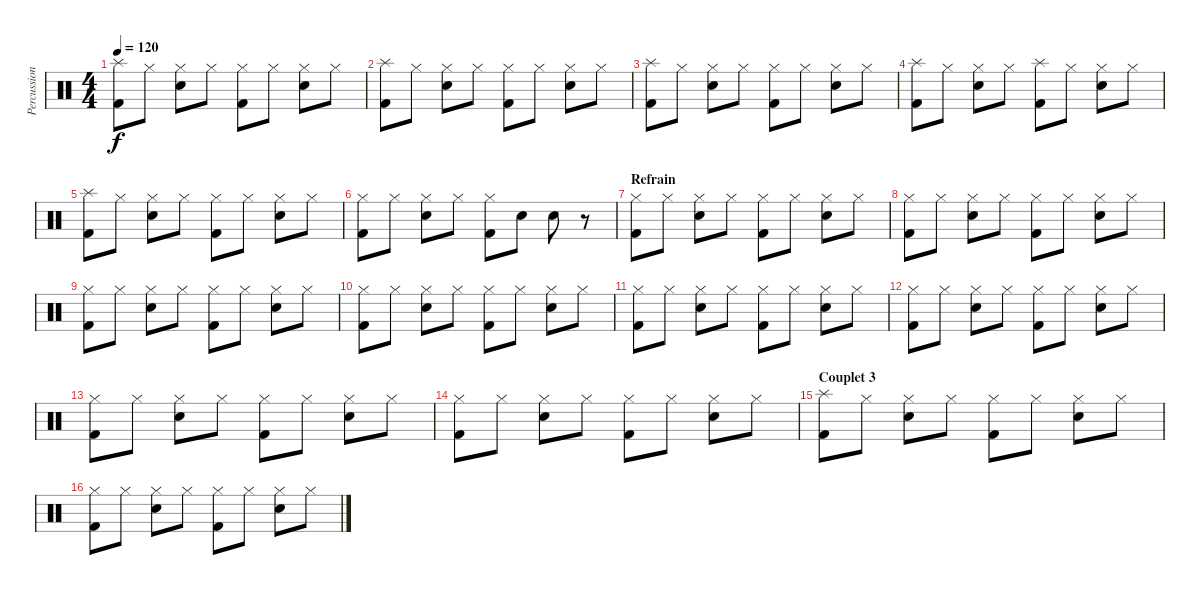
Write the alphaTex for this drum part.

\track ("Percussions" "Percussion") {instrument percussion}
\staff {score}
\articulation defaults
\ts (4 4)
\tempo 120
\clef neutral
\ks c
("Kick (hit) 2" "Splash (hit)").8{dy f} "Hi-Hat (closed)".8 ("Electric Snare (hit)" "Hi-Hat (closed)").8 "Hi-Hat (closed)".8 ("Kick (hit) 2" "Hi-Hat (closed)").8 "Hi-Hat (closed)".8 ("Electric Snare (hit)" "Hi-Hat (closed)").8 "Hi-Hat (closed)".8 |
("Kick (hit) 2" "Splash (hit)").8 "Hi-Hat (closed)".8 ("Electric Snare (hit)" "Hi-Hat (closed)").8 "Hi-Hat (closed)".8 ("Kick (hit) 2" "Hi-Hat (closed)").8 "Hi-Hat (closed)".8 ("Electric Snare (hit)" "Hi-Hat (closed)").8 "Hi-Hat (closed)".8 |
("Kick (hit) 2" "Splash (hit)").8 "Hi-Hat (closed)".8 ("Electric Snare (hit)" "Hi-Hat (closed)").8 "Hi-Hat (closed)".8 ("Kick (hit) 2" "Hi-Hat (closed)").8 "Hi-Hat (closed)".8 ("Electric Snare (hit)" "Hi-Hat (closed)").8 "Hi-Hat (closed)".8 |
("Kick (hit) 2" "Splash (hit)").8 "Hi-Hat (closed)".8 ("Electric Snare (hit)" "Hi-Hat (closed)").8 "Hi-Hat (closed)".8 ("Kick (hit) 2" "Splash (hit)").8 "Hi-Hat (closed)".8 ("Electric Snare (hit)" "Hi-Hat (closed)").8 "Hi-Hat (closed)".8 |
("Kick (hit) 2" "Splash (hit)").8 "Hi-Hat (closed)".8 ("Electric Snare (hit)" "Hi-Hat (closed)").8 "Hi-Hat (closed)".8 ("Kick (hit) 2" "Hi-Hat (closed)").8 "Hi-Hat (closed)".8 ("Electric Snare (hit)" "Hi-Hat (closed)").8 "Hi-Hat (closed)".8 |
("Kick (hit) 2" "Hi-Hat (closed)").8 "Hi-Hat (closed)".8 ("Electric Snare (hit)" "Hi-Hat (closed)").8 "Hi-Hat (closed)".8 ("Kick (hit) 2" "Hi-Hat (closed)").8 "Electric Snare (hit)".8 "Electric Snare (hit)".8 r.8 |
\section ("" "Refrain")
("Kick (hit) 2" "Hi-Hat (closed)").8 "Hi-Hat (closed)".8 ("Electric Snare (hit)" "Hi-Hat (closed)").8 "Hi-Hat (closed)".8 ("Kick (hit) 2" "Hi-Hat (closed)").8 "Hi-Hat (closed)".8 ("Electric Snare (hit)" "Hi-Hat (closed)").8 "Hi-Hat (closed)".8 |
("Kick (hit) 2" "Hi-Hat (closed)").8 "Hi-Hat (closed)".8 ("Electric Snare (hit)" "Hi-Hat (closed)").8 "Hi-Hat (closed)".8 ("Kick (hit) 2" "Hi-Hat (closed)").8 "Hi-Hat (closed)".8 ("Electric Snare (hit)" "Hi-Hat (closed)").8 "Hi-Hat (closed)".8 |
("Kick (hit) 2" "Hi-Hat (closed)").8 "Hi-Hat (closed)".8 ("Electric Snare (hit)" "Hi-Hat (closed)").8 "Hi-Hat (closed)".8 ("Kick (hit) 2" "Hi-Hat (closed)").8 "Hi-Hat (closed)".8 ("Electric Snare (hit)" "Hi-Hat (closed)").8 "Hi-Hat (closed)".8 |
("Kick (hit) 2" "Hi-Hat (closed)").8 "Hi-Hat (closed)".8 ("Electric Snare (hit)" "Hi-Hat (closed)").8 "Hi-Hat (closed)".8 ("Kick (hit) 2" "Hi-Hat (closed)").8 "Hi-Hat (closed)".8 ("Electric Snare (hit)" "Hi-Hat (closed)").8 "Hi-Hat (closed)".8 |
("Kick (hit) 2" "Hi-Hat (closed)").8 "Hi-Hat (closed)".8 ("Electric Snare (hit)" "Hi-Hat (closed)").8 "Hi-Hat (closed)".8 ("Kick (hit) 2" "Hi-Hat (closed)").8 "Hi-Hat (closed)".8 ("Electric Snare (hit)" "Hi-Hat (closed)").8 "Hi-Hat (closed)".8 |
("Kick (hit) 2" "Hi-Hat (closed)").8 "Hi-Hat (closed)".8 ("Electric Snare (hit)" "Hi-Hat (closed)").8 "Hi-Hat (closed)".8 ("Kick (hit) 2" "Hi-Hat (closed)").8 "Hi-Hat (closed)".8 ("Electric Snare (hit)" "Hi-Hat (closed)").8 "Hi-Hat (closed)".8 |
("Kick (hit) 2" "Hi-Hat (closed)").8 "Hi-Hat (closed)".8 ("Electric Snare (hit)" "Hi-Hat (closed)").8 "Hi-Hat (closed)".8 ("Kick (hit) 2" "Hi-Hat (closed)").8 "Hi-Hat (closed)".8 ("Electric Snare (hit)" "Hi-Hat (closed)").8 "Hi-Hat (closed)".8 |
("Kick (hit) 2" "Hi-Hat (closed)").8 "Hi-Hat (closed)".8 ("Electric Snare (hit)" "Hi-Hat (closed)").8 "Hi-Hat (closed)".8 ("Kick (hit) 2" "Hi-Hat (closed)").8 "Hi-Hat (closed)".8 ("Electric Snare (hit)" "Hi-Hat (closed)").8 "Hi-Hat (closed)".8 |
\section ("" "Couplet 3")
("Kick (hit) 2" "Splash (hit)").8 "Hi-Hat (closed)".8 ("Electric Snare (hit)" "Hi-Hat (closed)").8 "Hi-Hat (closed)".8 ("Kick (hit) 2" "Hi-Hat (closed)").8 "Hi-Hat (closed)".8 ("Electric Snare (hit)" "Hi-Hat (closed)").8 "Hi-Hat (closed)".8 |
("Kick (hit) 2" "Hi-Hat (closed)").8 "Hi-Hat (closed)".8 ("Electric Snare (hit)" "Hi-Hat (closed)").8 "Hi-Hat (closed)".8 ("Kick (hit) 2" "Hi-Hat (closed)").8 "Hi-Hat (closed)".8 ("Electric Snare (hit)" "Hi-Hat (closed)").8 "Hi-Hat (closed)".8
